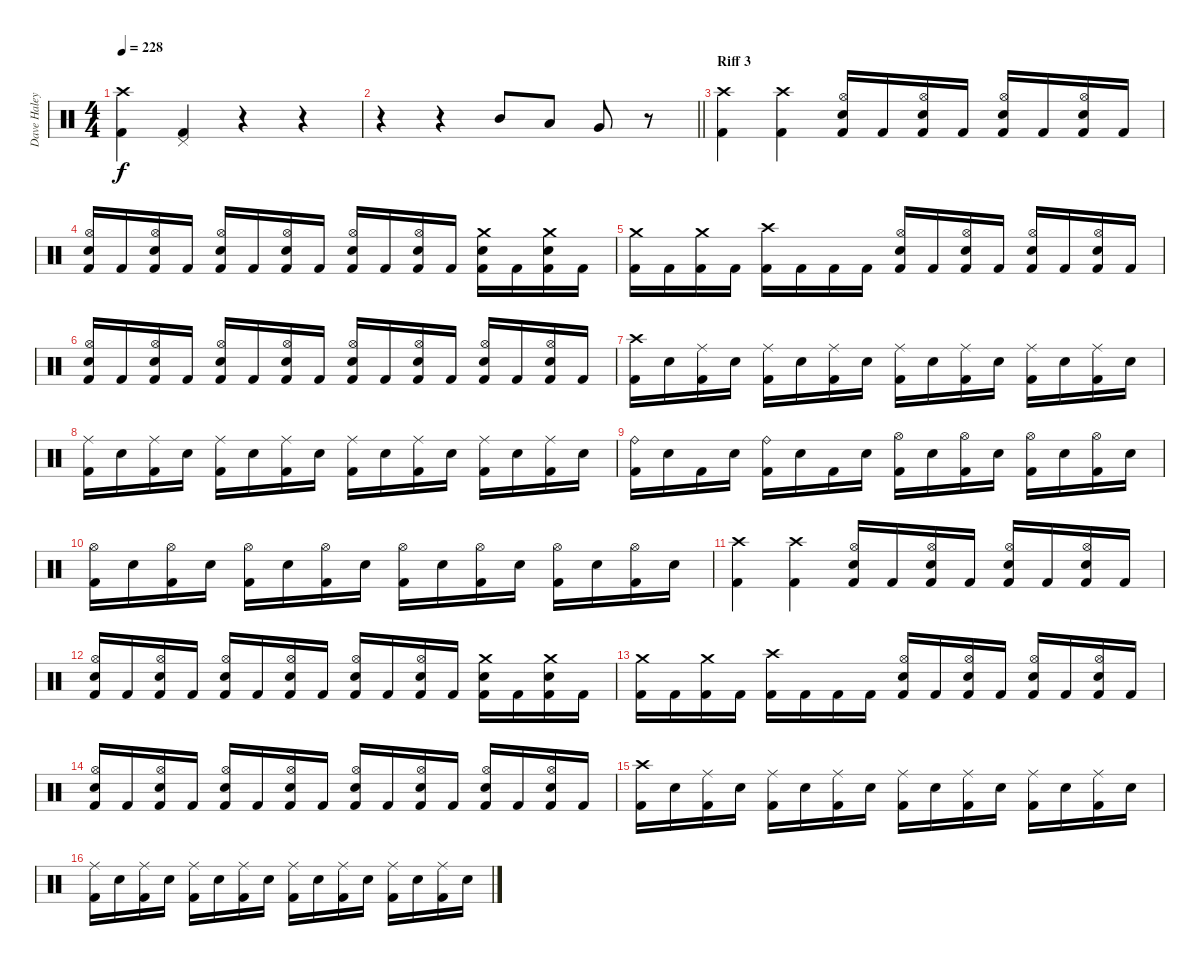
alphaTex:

\track ("Dave Haley" "Dave Haley") {instrument percussion}
\staff {score}
\articulation defaults
\ts (4 4)
\tempo 228
\clef neutral
\ks c
("Crash high (hit)" "Kick (hit) 2").4{dy f} ("Pedal Hi-Hat (hit)" "Kick (hit) 2").4 r.4 r.4 |
\barLineRight lightlight
r.4 r.4 "Mid Tom (hit)".8 "Low Tom (hit)".8 "Very Low Tom (hit)".8 r.8 |
\section ("" "Riff 3")
("Crash high (hit)" "Kick (hit) 2").4 ("Crash high (hit)" "Kick (hit) 2").4 ("Hi-Hat (open)" "Snare (hit) 2" "Kick (hit) 2").16 "Kick (hit) 2".16 ("Hi-Hat (open)" "Snare (hit) 2" "Kick (hit) 2").16 "Kick (hit) 2".16 ("Hi-Hat (open)" "Snare (hit) 2" "Kick (hit) 2").16 "Kick (hit) 2".16 ("Hi-Hat (open)" "Snare (hit) 2" "Kick (hit) 2").16 "Kick (hit) 2".16 |
("Hi-Hat (open)" "Snare (hit) 2" "Kick (hit) 2").16 "Kick (hit) 2".16 ("Hi-Hat (open)" "Snare (hit) 2" "Kick (hit) 2").16 "Kick (hit) 2".16 ("Hi-Hat (open)" "Snare (hit) 2" "Kick (hit) 2").16 "Kick (hit) 2".16 ("Hi-Hat (open)" "Snare (hit) 2" "Kick (hit) 2").16 "Kick (hit) 2".16 ("Hi-Hat (open)" "Snare (hit) 2" "Kick (hit) 2").16 "Kick (hit) 2".16 ("Hi-Hat (open)" "Snare (hit) 2" "Kick (hit) 2").16 "Kick (hit) 2".16 ("Crash medium (hit)" "Snare (hit) 2" "Kick (hit) 2").16 "Kick (hit) 2".16 ("Crash medium (hit)" "Snare (hit) 2" "Kick (hit) 2").16 "Kick (hit) 2".16 |
("Crash medium (hit)" "Kick (hit) 2").16 "Kick (hit) 2".16 ("Crash medium (hit)" "Kick (hit) 2").16 "Kick (hit) 2".16 ("Crash high (hit)" "Kick (hit) 2").16 "Kick (hit) 2".16 "Kick (hit) 2".16 "Kick (hit) 2".16 ("Hi-Hat (open)" "Snare (hit) 2" "Kick (hit) 2").16 "Kick (hit) 2".16 ("Hi-Hat (open)" "Snare (hit) 2" "Kick (hit) 2").16 "Kick (hit) 2".16 ("Hi-Hat (open)" "Snare (hit) 2" "Kick (hit) 2").16 "Kick (hit) 2".16 ("Hi-Hat (open)" "Snare (hit) 2" "Kick (hit) 2").16 "Kick (hit) 2".16 |
("Hi-Hat (open)" "Snare (hit) 2" "Kick (hit) 2").16 "Kick (hit) 2".16 ("Hi-Hat (open)" "Snare (hit) 2" "Kick (hit) 2").16 "Kick (hit) 2".16 ("Hi-Hat (open)" "Snare (hit) 2" "Kick (hit) 2").16 "Kick (hit) 2".16 ("Hi-Hat (open)" "Snare (hit) 2" "Kick (hit) 2").16 "Kick (hit) 2".16 ("Hi-Hat (open)" "Snare (hit) 2" "Kick (hit) 2").16 "Kick (hit) 2".16 ("Hi-Hat (open)" "Snare (hit) 2" "Kick (hit) 2").16 "Kick (hit) 2".16 ("Hi-Hat (open)" "Snare (hit) 2" "Kick (hit) 2").16 "Kick (hit) 2".16 ("Hi-Hat (open)" "Snare (hit) 2" "Kick (hit) 2").16 "Kick (hit) 2".16 |
("Crash high (hit)" "Kick (hit) 2").16 "Snare (hit) 2".16 ("Ride (middle)" "Kick (hit) 2").16 "Snare (hit) 2".16 ("Ride (middle)" "Kick (hit) 2").16 "Snare (hit) 2".16 ("Ride (middle)" "Kick (hit) 2").16 "Snare (hit) 2".16 ("Ride (middle)" "Kick (hit) 2").16 "Snare (hit) 2".16 ("Ride (middle)" "Kick (hit) 2").16 "Snare (hit) 2".16 ("Ride (middle)" "Kick (hit) 2").16 "Snare (hit) 2".16 ("Ride (middle)" "Kick (hit) 2").16 "Snare (hit) 2".16 |
("Ride (middle)" "Kick (hit) 2").16 "Snare (hit) 2".16 ("Ride (middle)" "Kick (hit) 2").16 "Snare (hit) 2".16 ("Ride (middle)" "Kick (hit) 2").16 "Snare (hit) 2".16 ("Ride (middle)" "Kick (hit) 2").16 "Snare (hit) 2".16 ("Ride (middle)" "Kick (hit) 2").16 "Snare (hit) 2".16 ("Ride (middle)" "Kick (hit) 2").16 "Snare (hit) 2".16 ("Ride (middle)" "Kick (hit) 2").16 "Snare (hit) 2".16 ("Ride (middle)" "Kick (hit) 2").16 "Snare (hit) 2".16 |
("Ride (bell)" "Kick (hit) 2").16 "Snare (hit) 2".16 "Kick (hit) 2".16 "Snare (hit) 2".16 ("Ride (bell)" "Kick (hit) 2").16 "Snare (hit) 2".16 "Kick (hit) 2".16 "Snare (hit) 2".16 ("Hi-Hat (open)" "Kick (hit) 2").16 "Snare (hit) 2".16 ("Hi-Hat (open)" "Kick (hit) 2").16 "Snare (hit) 2".16 ("Hi-Hat (open)" "Kick (hit) 2").16 "Snare (hit) 2".16 ("Hi-Hat (open)" "Kick (hit) 2").16 "Snare (hit) 2".16 |
("Hi-Hat (open)" "Kick (hit) 2").16 "Snare (hit) 2".16 ("Hi-Hat (open)" "Kick (hit) 2").16 "Snare (hit) 2".16 ("Hi-Hat (open)" "Kick (hit) 2").16 "Snare (hit) 2".16 ("Hi-Hat (open)" "Kick (hit) 2").16 "Snare (hit) 2".16 ("Hi-Hat (open)" "Kick (hit) 2").16 "Snare (hit) 2".16 ("Hi-Hat (open)" "Kick (hit) 2").16 "Snare (hit) 2".16 ("Hi-Hat (open)" "Kick (hit) 2").16 "Snare (hit) 2".16 ("Hi-Hat (open)" "Kick (hit) 2").16 "Snare (hit) 2".16 |
("Crash high (hit)" "Kick (hit) 2").4 ("Crash high (hit)" "Kick (hit) 2").4 ("Hi-Hat (open)" "Snare (hit) 2" "Kick (hit) 2").16 "Kick (hit) 2".16 ("Hi-Hat (open)" "Snare (hit) 2" "Kick (hit) 2").16 "Kick (hit) 2".16 ("Hi-Hat (open)" "Snare (hit) 2" "Kick (hit) 2").16 "Kick (hit) 2".16 ("Hi-Hat (open)" "Snare (hit) 2" "Kick (hit) 2").16 "Kick (hit) 2".16 |
("Hi-Hat (open)" "Snare (hit) 2" "Kick (hit) 2").16 "Kick (hit) 2".16 ("Hi-Hat (open)" "Snare (hit) 2" "Kick (hit) 2").16 "Kick (hit) 2".16 ("Hi-Hat (open)" "Snare (hit) 2" "Kick (hit) 2").16 "Kick (hit) 2".16 ("Hi-Hat (open)" "Snare (hit) 2" "Kick (hit) 2").16 "Kick (hit) 2".16 ("Hi-Hat (open)" "Snare (hit) 2" "Kick (hit) 2").16 "Kick (hit) 2".16 ("Hi-Hat (open)" "Snare (hit) 2" "Kick (hit) 2").16 "Kick (hit) 2".16 ("Crash medium (hit)" "Snare (hit) 2" "Kick (hit) 2").16 "Kick (hit) 2".16 ("Crash medium (hit)" "Snare (hit) 2" "Kick (hit) 2").16 "Kick (hit) 2".16 |
("Crash medium (hit)" "Kick (hit) 2").16 "Kick (hit) 2".16 ("Crash medium (hit)" "Kick (hit) 2").16 "Kick (hit) 2".16 ("Crash high (hit)" "Kick (hit) 2").16 "Kick (hit) 2".16 "Kick (hit) 2".16 "Kick (hit) 2".16 ("Hi-Hat (open)" "Snare (hit) 2" "Kick (hit) 2").16 "Kick (hit) 2".16 ("Hi-Hat (open)" "Snare (hit) 2" "Kick (hit) 2").16 "Kick (hit) 2".16 ("Hi-Hat (open)" "Snare (hit) 2" "Kick (hit) 2").16 "Kick (hit) 2".16 ("Hi-Hat (open)" "Snare (hit) 2" "Kick (hit) 2").16 "Kick (hit) 2".16 |
("Hi-Hat (open)" "Snare (hit) 2" "Kick (hit) 2").16 "Kick (hit) 2".16 ("Hi-Hat (open)" "Snare (hit) 2" "Kick (hit) 2").16 "Kick (hit) 2".16 ("Hi-Hat (open)" "Snare (hit) 2" "Kick (hit) 2").16 "Kick (hit) 2".16 ("Hi-Hat (open)" "Snare (hit) 2" "Kick (hit) 2").16 "Kick (hit) 2".16 ("Hi-Hat (open)" "Snare (hit) 2" "Kick (hit) 2").16 "Kick (hit) 2".16 ("Hi-Hat (open)" "Snare (hit) 2" "Kick (hit) 2").16 "Kick (hit) 2".16 ("Hi-Hat (open)" "Snare (hit) 2" "Kick (hit) 2").16 "Kick (hit) 2".16 ("Hi-Hat (open)" "Snare (hit) 2" "Kick (hit) 2").16 "Kick (hit) 2".16 |
("Crash high (hit)" "Kick (hit) 2").16 "Snare (hit) 2".16 ("Ride (middle)" "Kick (hit) 2").16 "Snare (hit) 2".16 ("Ride (middle)" "Kick (hit) 2").16 "Snare (hit) 2".16 ("Ride (middle)" "Kick (hit) 2").16 "Snare (hit) 2".16 ("Ride (middle)" "Kick (hit) 2").16 "Snare (hit) 2".16 ("Ride (middle)" "Kick (hit) 2").16 "Snare (hit) 2".16 ("Ride (middle)" "Kick (hit) 2").16 "Snare (hit) 2".16 ("Ride (middle)" "Kick (hit) 2").16 "Snare (hit) 2".16 |
("Ride (middle)" "Kick (hit) 2").16 "Snare (hit) 2".16 ("Ride (middle)" "Kick (hit) 2").16 "Snare (hit) 2".16 ("Ride (middle)" "Kick (hit) 2").16 "Snare (hit) 2".16 ("Ride (middle)" "Kick (hit) 2").16 "Snare (hit) 2".16 ("Ride (middle)" "Kick (hit) 2").16 "Snare (hit) 2".16 ("Ride (middle)" "Kick (hit) 2").16 "Snare (hit) 2".16 ("Ride (middle)" "Kick (hit) 2").16 "Snare (hit) 2".16 ("Ride (middle)" "Kick (hit) 2").16 "Snare (hit) 2".16
